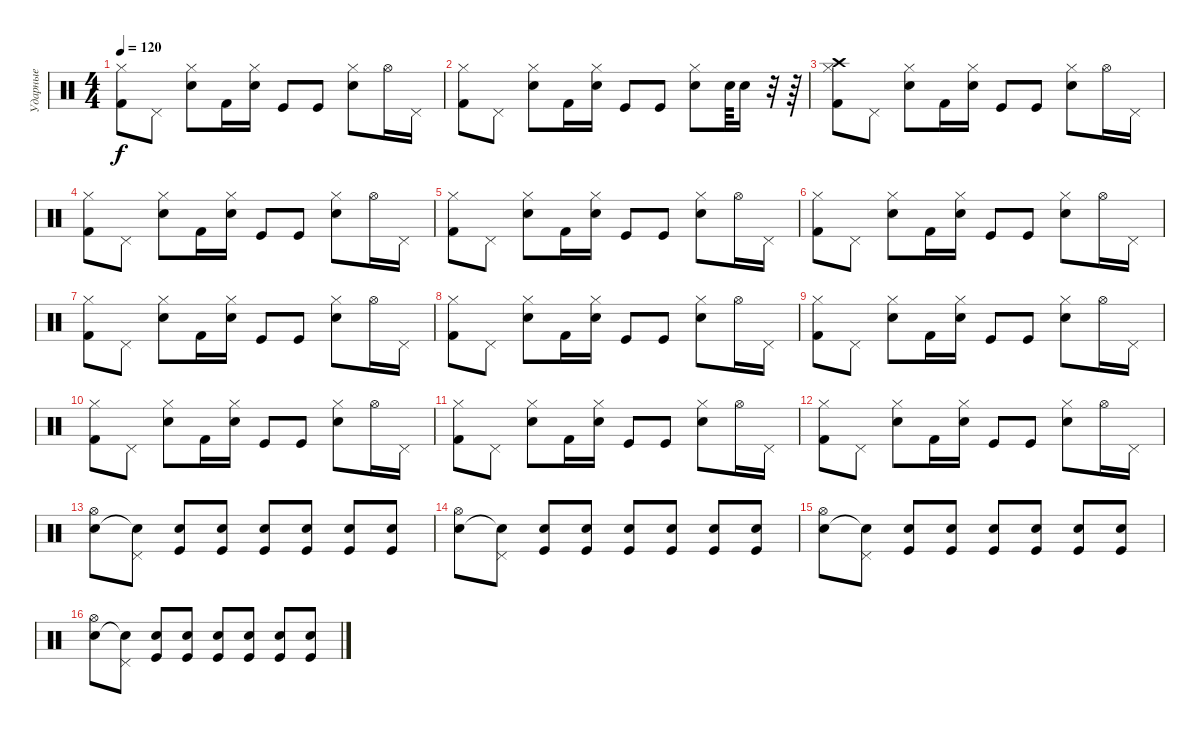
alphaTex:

\track ("Ударные" "Ударные") {instrument percussion}
\staff {score}
\articulation defaults
\ts (4 4)
\tempo 120
\clef neutral
\ks c
("Hi-Hat (closed)" "Kick (hit) 2").8{dy f} "Pedal Hi-Hat (hit)".8 ("Hi-Hat (closed)" "Electric Snare (hit)").8 "Kick (hit) 2".16 ("Hi-Hat (closed)" "Electric Snare (hit)").16 "Kick (hit)".8 "Kick (hit)".8 ("Hi-Hat (closed)" "Electric Snare (hit)").8 "Hi-Hat (open)".16 "Pedal Hi-Hat (hit)".16 |
("Hi-Hat (closed)" "Kick (hit) 2").8 "Pedal Hi-Hat (hit)".8 ("Hi-Hat (closed)" "Electric Snare (hit)").8 "Kick (hit) 2".16 ("Hi-Hat (closed)" "Electric Snare (hit)").16 "Kick (hit)".8 "Kick (hit)".8 ("Hi-Hat (closed)" "Electric Snare (hit)").8 "Electric Snare (hit)".64 "Electric Snare (hit)".16 r.32 r.64 |
("Crash high (hit)" "Hi-Hat (closed)" "Kick (hit) 2").8 "Pedal Hi-Hat (hit)".8 ("Hi-Hat (closed)" "Electric Snare (hit)").8 "Kick (hit) 2".16 ("Hi-Hat (closed)" "Electric Snare (hit)").16 "Kick (hit)".8 "Kick (hit)".8 ("Hi-Hat (closed)" "Electric Snare (hit)").8 "Hi-Hat (open)".16 "Pedal Hi-Hat (hit)".16 |
("Hi-Hat (closed)" "Kick (hit) 2").8 "Pedal Hi-Hat (hit)".8 ("Hi-Hat (closed)" "Electric Snare (hit)").8 "Kick (hit) 2".16 ("Hi-Hat (closed)" "Electric Snare (hit)").16 "Kick (hit)".8 "Kick (hit)".8 ("Hi-Hat (closed)" "Electric Snare (hit)").8 "Hi-Hat (open)".16 "Pedal Hi-Hat (hit)".16 |
("Hi-Hat (closed)" "Kick (hit) 2").8 "Pedal Hi-Hat (hit)".8 ("Hi-Hat (closed)" "Electric Snare (hit)").8 "Kick (hit) 2".16 ("Hi-Hat (closed)" "Electric Snare (hit)").16 "Kick (hit)".8 "Kick (hit)".8 ("Hi-Hat (closed)" "Electric Snare (hit)").8 "Hi-Hat (open)".16 "Pedal Hi-Hat (hit)".16 |
("Hi-Hat (closed)" "Kick (hit) 2").8 "Pedal Hi-Hat (hit)".8 ("Hi-Hat (closed)" "Electric Snare (hit)").8 "Kick (hit) 2".16 ("Hi-Hat (closed)" "Electric Snare (hit)").16 "Kick (hit)".8 "Kick (hit)".8 ("Hi-Hat (closed)" "Electric Snare (hit)").8 "Hi-Hat (open)".16 "Pedal Hi-Hat (hit)".16 |
("Hi-Hat (closed)" "Kick (hit) 2").8 "Pedal Hi-Hat (hit)".8 ("Hi-Hat (closed)" "Electric Snare (hit)").8 "Kick (hit) 2".16 ("Hi-Hat (closed)" "Electric Snare (hit)").16 "Kick (hit)".8 "Kick (hit)".8 ("Hi-Hat (closed)" "Electric Snare (hit)").8 "Hi-Hat (open)".16 "Pedal Hi-Hat (hit)".16 |
("Hi-Hat (closed)" "Kick (hit) 2").8 "Pedal Hi-Hat (hit)".8 ("Hi-Hat (closed)" "Electric Snare (hit)").8 "Kick (hit) 2".16 ("Hi-Hat (closed)" "Electric Snare (hit)").16 "Kick (hit)".8 "Kick (hit)".8 ("Hi-Hat (closed)" "Electric Snare (hit)").8 "Hi-Hat (open)".16 "Pedal Hi-Hat (hit)".16 |
("Hi-Hat (closed)" "Kick (hit) 2").8 "Pedal Hi-Hat (hit)".8 ("Hi-Hat (closed)" "Electric Snare (hit)").8 "Kick (hit) 2".16 ("Hi-Hat (closed)" "Electric Snare (hit)").16 "Kick (hit)".8 "Kick (hit)".8 ("Hi-Hat (closed)" "Electric Snare (hit)").8 "Hi-Hat (open)".16 "Pedal Hi-Hat (hit)".16 |
("Hi-Hat (closed)" "Kick (hit) 2").8 "Pedal Hi-Hat (hit)".8 ("Hi-Hat (closed)" "Electric Snare (hit)").8 "Kick (hit) 2".16 ("Hi-Hat (closed)" "Electric Snare (hit)").16 "Kick (hit)".8 "Kick (hit)".8 ("Hi-Hat (closed)" "Electric Snare (hit)").8 "Hi-Hat (open)".16 "Pedal Hi-Hat (hit)".16 |
("Hi-Hat (closed)" "Kick (hit) 2").8 "Pedal Hi-Hat (hit)".8 ("Hi-Hat (closed)" "Electric Snare (hit)").8 "Kick (hit) 2".16 ("Hi-Hat (closed)" "Electric Snare (hit)").16 "Kick (hit)".8 "Kick (hit)".8 ("Hi-Hat (closed)" "Electric Snare (hit)").8 "Hi-Hat (open)".16 "Pedal Hi-Hat (hit)".16 |
("Hi-Hat (closed)" "Kick (hit) 2").8 "Pedal Hi-Hat (hit)".8 ("Hi-Hat (closed)" "Electric Snare (hit)").8 "Kick (hit) 2".16 ("Hi-Hat (closed)" "Electric Snare (hit)").16 "Kick (hit)".8 "Kick (hit)".8 ("Hi-Hat (closed)" "Electric Snare (hit)").8 "Hi-Hat (open)".16 "Pedal Hi-Hat (hit)".16 |
("Hi-Hat (open)" "Electric Snare (hit)").8 ("Pedal Hi-Hat (hit)" "Snare (hit)"{t}).8 ("Electric Snare (hit)" "Kick (hit)").8 ("Electric Snare (hit)" "Kick (hit)").8 ("Electric Snare (hit)" "Kick (hit)").8 ("Electric Snare (hit)" "Kick (hit)").8 ("Electric Snare (hit)" "Kick (hit)").8 ("Electric Snare (hit)" "Kick (hit)").8 |
("Hi-Hat (open)" "Electric Snare (hit)").8 ("Pedal Hi-Hat (hit)" "Snare (hit)"{t}).8 ("Electric Snare (hit)" "Kick (hit)").8 ("Electric Snare (hit)" "Kick (hit)").8 ("Electric Snare (hit)" "Kick (hit)").8 ("Electric Snare (hit)" "Kick (hit)").8 ("Electric Snare (hit)" "Kick (hit)").8 ("Electric Snare (hit)" "Kick (hit)").8 |
("Hi-Hat (open)" "Electric Snare (hit)").8 ("Pedal Hi-Hat (hit)" "Snare (hit)"{t}).8 ("Electric Snare (hit)" "Kick (hit)").8 ("Electric Snare (hit)" "Kick (hit)").8 ("Electric Snare (hit)" "Kick (hit)").8 ("Electric Snare (hit)" "Kick (hit)").8 ("Electric Snare (hit)" "Kick (hit)").8 ("Electric Snare (hit)" "Kick (hit)").8 |
("Hi-Hat (open)" "Electric Snare (hit)").8 ("Pedal Hi-Hat (hit)" "Snare (hit)"{t}).8 ("Electric Snare (hit)" "Kick (hit)").8 ("Electric Snare (hit)" "Kick (hit)").8 ("Electric Snare (hit)" "Kick (hit)").8 ("Electric Snare (hit)" "Kick (hit)").8 ("Electric Snare (hit)" "Kick (hit)").8 ("Electric Snare (hit)" "Kick (hit)").8
